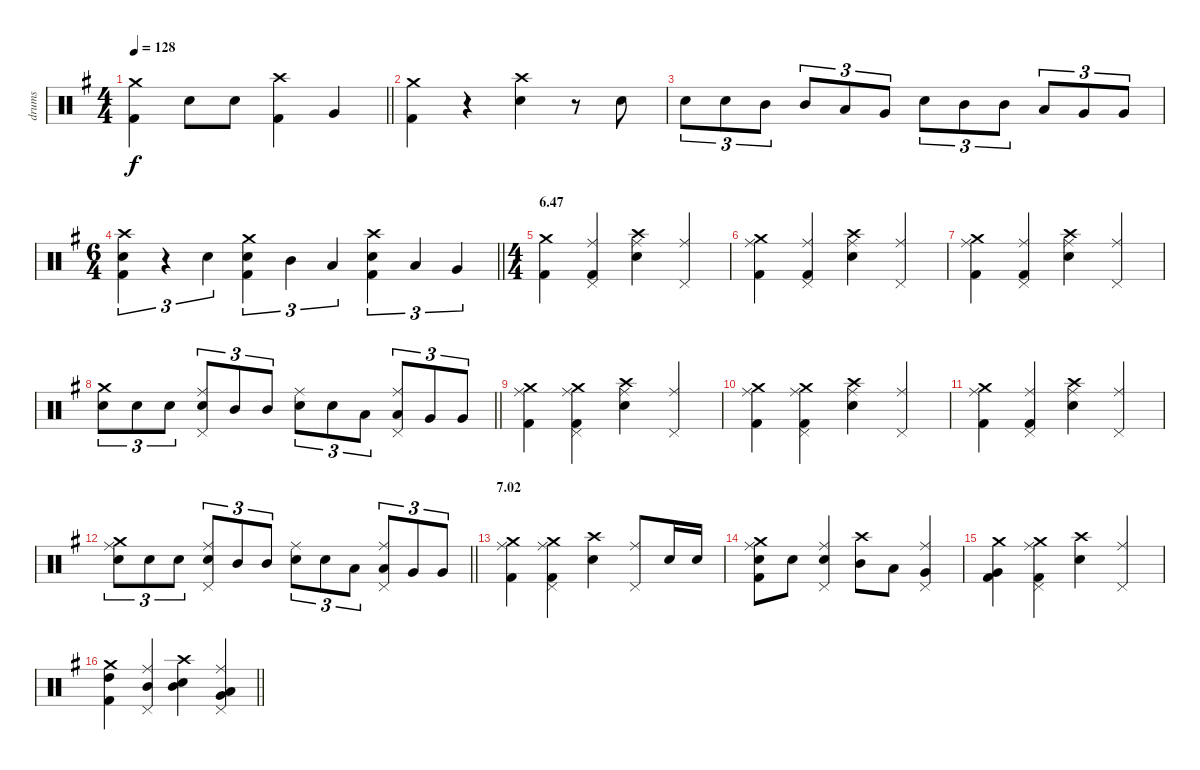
\track ("drums" "drums") {instrument percussion}
\staff {score}
\articulation defaults
\ts (4 4)
\tempo 128
\clef neutral
\barLineRight lightlight
\ks g
("Crash medium (hit)" "Kick (hit) 2").4{dy f} "Electric Snare (hit)".8 "Electric Snare (hit)".8 ("Crash high (hit)" "Kick (hit) 2").4 "Very Low Tom (hit)".4 |
("Crash medium (hit)" "Kick (hit) 2").4 r.4 ("Crash high (hit)" "Electric Snare (hit)").4 r.8 "Electric Snare (hit)".8 |
"Electric Snare (hit)".8{tu (3 2)} "Electric Snare (hit)".8{tu (3 2)} "Mid Tom (hit)".8{tu (3 2)} "Mid Tom (hit)".8{tu (3 2)} "Low Tom (hit)".8{tu (3 2)} "Very Low Tom (hit)".8{tu (3 2)} "Electric Snare (hit)".8{tu (3 2)} "Mid Tom (hit)".8{tu (3 2)} "Mid Tom (hit)".8{tu (3 2)} "Low Tom (hit)".8{tu (3 2)} "Very Low Tom (hit)".8{tu (3 2)} "Very Low Tom (hit)".8{tu (3 2)} |
\ts (6 4)
\barLineRight lightlight
("Crash high (hit)" "Electric Snare (hit)" "Kick (hit) 2").4{tu (3 2)} r.4{tu (3 2)} "Electric Snare (hit)".4{tu (3 2)} ("Crash medium (hit)" "Electric Snare (hit)" "Kick (hit) 2").4{tu (3 2)} "Mid Tom (hit)".4{tu (3 2)} "Low Tom (hit)".4{tu (3 2)} ("Crash high (hit)" "Electric Snare (hit)" "Kick (hit) 2").4{tu (3 2)} "Low Tom (hit)".4{tu (3 2)} "Very Low Tom (hit)".4{tu (3 2)} |
\ts (4 4)
\section ("" "6.47")
("Crash medium (hit)" "Kick (hit) 2").4 ("Ride (middle)" "Pedal Hi-Hat (hit)" "Kick (hit) 2").4 ("Ride (middle)" "Crash high (hit)" "Electric Snare (hit)").4 ("Ride (middle)" "Pedal Hi-Hat (hit)").4 |
("Ride (middle)" "Crash medium (hit)" "Kick (hit) 2").4 ("Ride (middle)" "Pedal Hi-Hat (hit)" "Kick (hit) 2").4 ("Ride (middle)" "Crash high (hit)" "Electric Snare (hit)").4 ("Ride (middle)" "Pedal Hi-Hat (hit)").4 |
("Ride (middle)" "Crash medium (hit)" "Kick (hit) 2").4 ("Ride (middle)" "Pedal Hi-Hat (hit)" "Kick (hit) 2").4 ("Ride (middle)" "Crash high (hit)" "Electric Snare (hit)").4 ("Ride (middle)" "Pedal Hi-Hat (hit)").4 |
\barLineRight lightlight
("Crash medium (hit)" "Electric Snare (hit)").8{tu (3 2)} "Electric Snare (hit)".8{tu (3 2)} "Electric Snare (hit)".8{tu (3 2)} ("Ride (middle)" "Pedal Hi-Hat (hit)" "Electric Snare (hit)").8{tu (3 2)} "Mid Tom (hit)".8{tu (3 2)} "Mid Tom (hit)".8{tu (3 2)} ("Ride (middle)" "Electric Snare (hit)").8{tu (3 2)} "Electric Snare (hit)".8{tu (3 2)} "Low Tom (hit)".8{tu (3 2)} ("Ride (middle)" "Pedal Hi-Hat (hit)" "Low Tom (hit)").8{tu (3 2)} "Very Low Tom (hit)".8{tu (3 2)} "Very Low Tom (hit)".8{tu (3 2)} |
("Ride (middle)" "Crash medium (hit)" "Kick (hit) 2").4 ("Ride (middle)" "Pedal Hi-Hat (hit)" "Crash medium (hit)" "Kick (hit) 2").4 ("Ride (middle)" "Crash high (hit)" "Electric Snare (hit)").4 ("Ride (middle)" "Pedal Hi-Hat (hit)").4 |
("Ride (middle)" "Crash medium (hit)" "Kick (hit) 2").4 ("Ride (middle)" "Pedal Hi-Hat (hit)" "Crash medium (hit)" "Kick (hit) 2").4 ("Ride (middle)" "Crash high (hit)" "Electric Snare (hit)").4 ("Ride (middle)" "Pedal Hi-Hat (hit)").4 |
("Ride (middle)" "Crash medium (hit)" "Kick (hit) 2").4 ("Ride (middle)" "Pedal Hi-Hat (hit)" "Kick (hit) 2").4 ("Ride (middle)" "Crash high (hit)" "Electric Snare (hit)").4 ("Ride (middle)" "Pedal Hi-Hat (hit)").4 |
\barLineRight lightlight
("Ride (middle)" "Crash medium (hit)" "Electric Snare (hit)").8{tu (3 2)} "Electric Snare (hit)".8{tu (3 2)} "Electric Snare (hit)".8{tu (3 2)} ("Ride (middle)" "Pedal Hi-Hat (hit)" "Electric Snare (hit)").8{tu (3 2)} "Mid Tom (hit)".8{tu (3 2)} "Mid Tom (hit)".8{tu (3 2)} ("Ride (middle)" "Electric Snare (hit)").8{tu (3 2)} "Electric Snare (hit)".8{tu (3 2)} "Low Tom (hit)".8{tu (3 2)} ("Ride (middle)" "Pedal Hi-Hat (hit)" "Low Tom (hit)").8{tu (3 2)} "Very Low Tom (hit)".8{tu (3 2)} "Very Low Tom (hit)".8{tu (3 2)} |
\section ("" "7.02")
("Ride (middle)" "Crash medium (hit)" "Kick (hit) 2").4 ("Ride (middle)" "Pedal Hi-Hat (hit)" "Crash medium (hit)" "Kick (hit) 2").4 ("Crash high (hit)" "Electric Snare (hit)").4 ("Ride (middle)" "Pedal Hi-Hat (hit)").8 "Electric Snare (hit)".16 "Electric Snare (hit)".16 |
("Ride (middle)" "Crash medium (hit)" "Electric Snare (hit)" "Kick (hit) 2").8 "Electric Snare (hit)".8 ("Ride (middle)" "Pedal Hi-Hat (hit)" "Electric Snare (hit)").4 ("Crash high (hit)" "Mid Tom (hit)").8 "Low Tom (hit)".8 ("Ride (middle)" "Pedal Hi-Hat (hit)" "Very Low Tom (hit)").4 |
("Crash medium (hit)" "Very Low Tom (hit)" "Kick (hit) 2").4 ("Ride (middle)" "Pedal Hi-Hat (hit)" "Crash medium (hit)" "Kick (hit) 2").4 ("Crash high (hit)" "Electric Snare (hit)").4 ("Ride (middle)" "Pedal Hi-Hat (hit)").4 |
\barLineRight lightlight
("Crash medium (hit)" "High Tom (hit)" "Kick (hit) 2").4 ("Ride (middle)" "Pedal Hi-Hat (hit)" "Mid Tom (hit)").4 ("Crash high (hit)" "Mid Tom (hit)" "Electric Snare (hit)").4 ("Ride (middle)" "Pedal Hi-Hat (hit)" "Low Tom (hit)" "Very Low Tom (hit)").4
